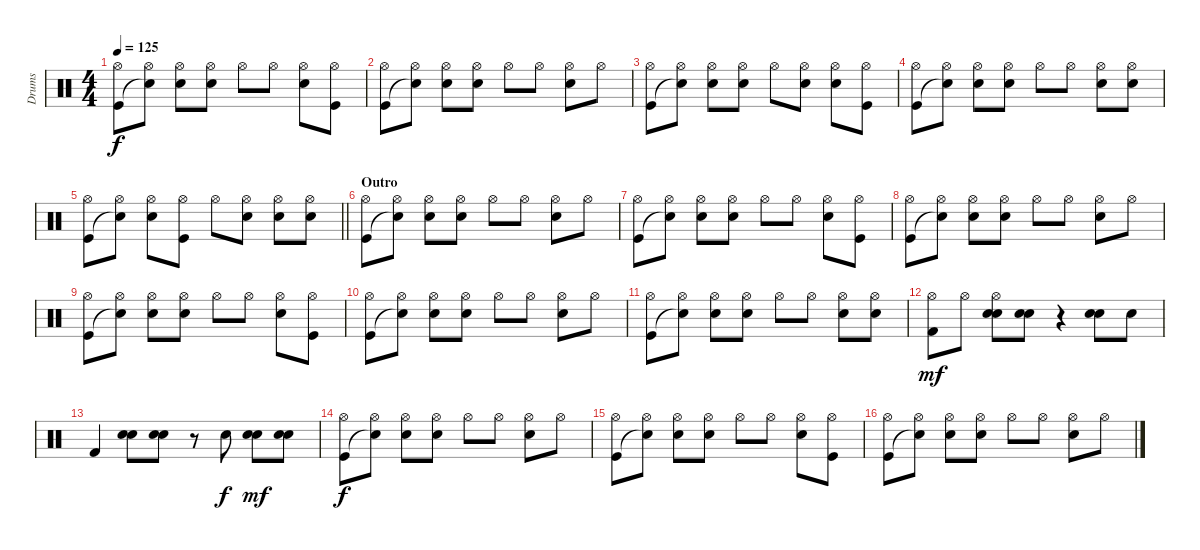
\track ("Drums" "Drums") {instrument percussion}
\staff {score}
\articulation defaults
\ts (4 4)
\tempo 125
\clef neutral
\ks c
("Hi-Hat (open)" "Kick (hit)").8{dy f} ("Hi-Hat (open)" "Snare (hit)"{t}).8 ("Hi-Hat (open)" "Snare (hit) 2").8 ("Hi-Hat (open)" "Snare (hit) 2").8 "Hi-Hat (open)".8 "Hi-Hat (open)".8 ("Hi-Hat (open)" "Snare (hit) 2").8 ("Hi-Hat (open)" "Kick (hit)").8 |
("Hi-Hat (open)" "Kick (hit)").8 ("Hi-Hat (open)" "Snare (hit)"{t}).8 ("Hi-Hat (open)" "Snare (hit) 2").8 ("Hi-Hat (open)" "Snare (hit) 2").8 "Hi-Hat (open)".8 "Hi-Hat (open)".8 ("Hi-Hat (open)" "Snare (hit) 2").8 "Hi-Hat (open)".8 |
("Hi-Hat (open)" "Kick (hit)").8 ("Hi-Hat (open)" "Snare (hit)"{t}).8 ("Hi-Hat (open)" "Snare (hit) 2").8 ("Hi-Hat (open)" "Snare (hit) 2").8 "Hi-Hat (open)".8 ("Hi-Hat (open)" "Snare (hit) 2").8 ("Hi-Hat (open)" "Snare (hit) 2").8 ("Hi-Hat (open)" "Kick (hit)").8 |
("Hi-Hat (open)" "Kick (hit)").8 ("Hi-Hat (open)" "Snare (hit)"{t}).8 ("Hi-Hat (open)" "Snare (hit) 2").8 ("Hi-Hat (open)" "Snare (hit) 2").8 "Hi-Hat (open)".8 "Hi-Hat (open)".8 ("Hi-Hat (open)" "Snare (hit) 2").8 ("Hi-Hat (open)" "Snare (hit)").8 |
\barLineRight lightlight
("Hi-Hat (open)" "Kick (hit)").8 ("Hi-Hat (open)" "Snare (hit)"{t}).8 ("Hi-Hat (open)" "Snare (hit) 2").8 ("Hi-Hat (open)" "Kick (hit)").8 "Hi-Hat (open)".8 ("Hi-Hat (open)" "Snare (hit) 2").8 ("Hi-Hat (open)" "Snare (hit) 2").8 ("Hi-Hat (open)" "Snare (hit) 2").8 |
\section ("" "Outro")
("Hi-Hat (open)" "Kick (hit)").8 ("Hi-Hat (open)" "Snare (hit)"{t}).8 ("Hi-Hat (open)" "Snare (hit) 2").8 ("Hi-Hat (open)" "Snare (hit) 2").8 "Hi-Hat (open)".8 "Hi-Hat (open)".8 ("Hi-Hat (open)" "Snare (hit) 2").8 "Hi-Hat (open)".8 |
("Hi-Hat (open)" "Kick (hit)").8 ("Hi-Hat (open)" "Snare (hit)"{t}).8 ("Hi-Hat (open)" "Snare (hit) 2").8 ("Hi-Hat (open)" "Snare (hit) 2").8 "Hi-Hat (open)".8 "Hi-Hat (open)".8 ("Hi-Hat (open)" "Snare (hit) 2").8 ("Hi-Hat (open)" "Kick (hit)").8 |
("Hi-Hat (open)" "Kick (hit)").8 ("Hi-Hat (open)" "Snare (hit)"{t}).8 ("Hi-Hat (open)" "Snare (hit) 2").8 ("Hi-Hat (open)" "Snare (hit) 2").8 "Hi-Hat (open)".8 "Hi-Hat (open)".8 ("Hi-Hat (open)" "Snare (hit) 2").8 "Hi-Hat (open)".8 |
("Hi-Hat (open)" "Kick (hit)").8 ("Hi-Hat (open)" "Snare (hit)"{t}).8 ("Hi-Hat (open)" "Snare (hit) 2").8 ("Hi-Hat (open)" "Snare (hit) 2").8 "Hi-Hat (open)".8 "Hi-Hat (open)".8 ("Hi-Hat (open)" "Snare (hit) 2").8 ("Hi-Hat (open)" "Kick (hit)").8 |
("Hi-Hat (open)" "Kick (hit)").8 ("Hi-Hat (open)" "Snare (hit)"{t}).8 ("Hi-Hat (open)" "Snare (hit) 2").8 ("Hi-Hat (open)" "Snare (hit) 2").8 "Hi-Hat (open)".8 "Hi-Hat (open)".8 ("Hi-Hat (open)" "Snare (hit) 2").8 "Hi-Hat (open)".8 |
("Hi-Hat (open)" "Kick (hit)").8 ("Hi-Hat (open)" "Snare (hit)"{t}).8 ("Hi-Hat (open)" "Snare (hit) 2").8 ("Hi-Hat (open)" "Snare (hit) 2").8 "Hi-Hat (open)".8 "Hi-Hat (open)".8 ("Hi-Hat (open)" "Snare (hit) 2").8 ("Hi-Hat (open)" "Snare (hit) 2").8 |
("Hi-Hat (open)" "Kick (hit) 2").8{dy mf} "Hi-Hat (open)".8 ("Hi-Hat (open)" "Snare (hit) 2" "Hand Clap (hit)").8 ("Snare (hit) 2" "Hand Clap (hit)").8 r.4 ("Snare (hit) 2" "Hand Clap (hit)").8 "Hand Clap (hit)".8 |
"Kick (hit) 2".4 ("Snare (hit) 2" "Hand Clap (hit)").8 ("Snare (hit) 2" "Hand Clap (hit)").8 r.8 "Snare (hit) 2".8{dy f} ("Snare (hit) 2" "Hand Clap (hit)").8{dy mf} ("Snare (hit) 2" "Hand Clap (hit)").8 |
("Hi-Hat (open)" "Kick (hit)").8{dy f} ("Hi-Hat (open)" "Snare (hit)"{t}).8 ("Hi-Hat (open)" "Snare (hit) 2").8 ("Hi-Hat (open)" "Snare (hit) 2").8 "Hi-Hat (open)".8 "Hi-Hat (open)".8 ("Hi-Hat (open)" "Snare (hit) 2").8 "Hi-Hat (open)".8 |
("Hi-Hat (open)" "Kick (hit)").8 ("Hi-Hat (open)" "Snare (hit)"{t}).8 ("Hi-Hat (open)" "Snare (hit) 2").8 ("Hi-Hat (open)" "Snare (hit) 2").8 "Hi-Hat (open)".8 "Hi-Hat (open)".8 ("Hi-Hat (open)" "Snare (hit) 2").8 ("Hi-Hat (open)" "Kick (hit)").8 |
("Hi-Hat (open)" "Kick (hit)").8 ("Hi-Hat (open)" "Snare (hit)"{t}).8 ("Hi-Hat (open)" "Snare (hit) 2").8 ("Hi-Hat (open)" "Snare (hit) 2").8 "Hi-Hat (open)".8 "Hi-Hat (open)".8 ("Hi-Hat (open)" "Snare (hit) 2").8 "Hi-Hat (open)".8
